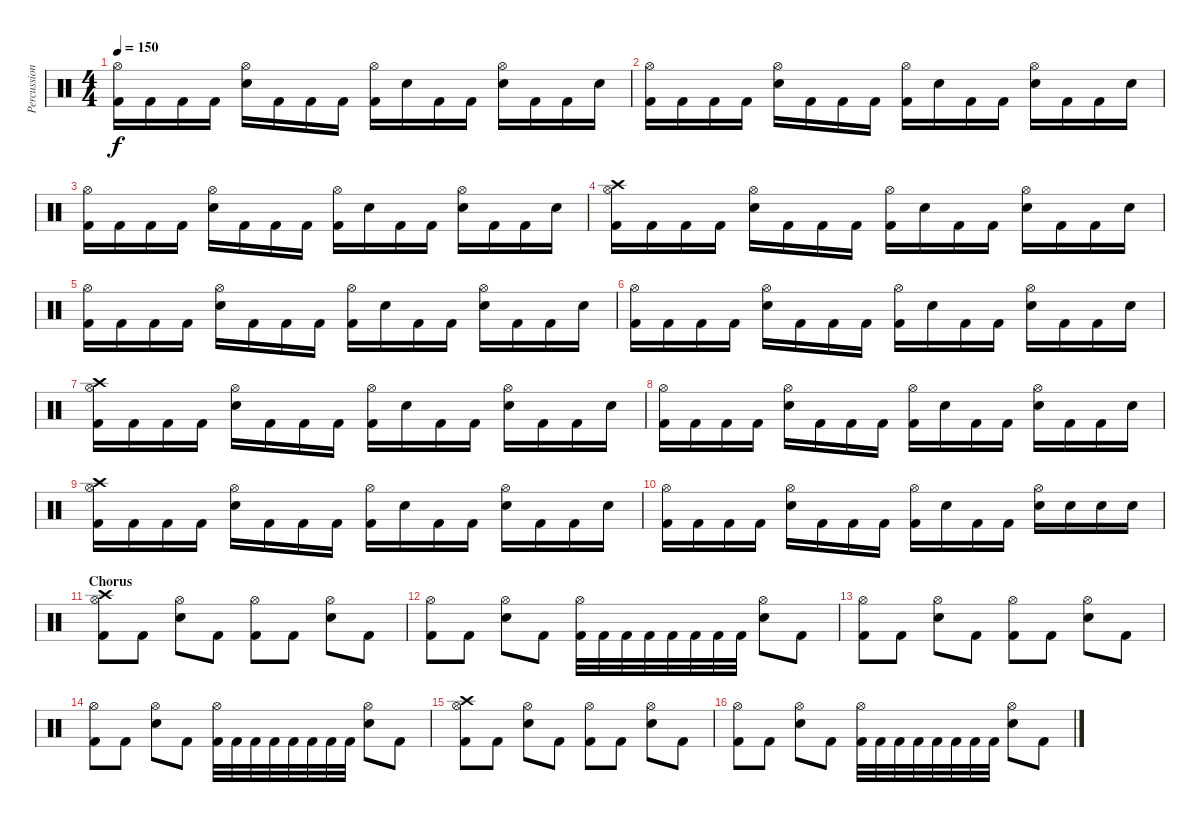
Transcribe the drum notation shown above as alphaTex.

\track ("Percussions" "Percussion") {instrument percussion}
\staff {score}
\articulation defaults
\ts (4 4)
\tempo 150
\clef neutral
\ks c
("Hi-Hat (open)" "Kick (hit) 2").16{dy f} "Kick (hit) 2".16 "Kick (hit) 2".16 "Kick (hit) 2".16 ("Hi-Hat (open)" "Electric Snare (hit)").16 "Kick (hit) 2".16 "Kick (hit) 2".16 "Kick (hit) 2".16 ("Hi-Hat (open)" "Kick (hit) 2").16 "Electric Snare (hit)".16 "Kick (hit) 2".16 "Kick (hit) 2".16 ("Hi-Hat (open)" "Electric Snare (hit)").16 "Kick (hit) 2".16 "Kick (hit) 2".16 "Electric Snare (hit)".16 |
("Hi-Hat (open)" "Kick (hit) 2").16 "Kick (hit) 2".16 "Kick (hit) 2".16 "Kick (hit) 2".16 ("Hi-Hat (open)" "Electric Snare (hit)").16 "Kick (hit) 2".16 "Kick (hit) 2".16 "Kick (hit) 2".16 ("Hi-Hat (open)" "Kick (hit) 2").16 "Electric Snare (hit)".16 "Kick (hit) 2".16 "Kick (hit) 2".16 ("Hi-Hat (open)" "Electric Snare (hit)").16 "Kick (hit) 2".16 "Kick (hit) 2".16 "Electric Snare (hit)".16 |
("Hi-Hat (open)" "Kick (hit) 2").16 "Kick (hit) 2".16 "Kick (hit) 2".16 "Kick (hit) 2".16 ("Hi-Hat (open)" "Electric Snare (hit)").16 "Kick (hit) 2".16 "Kick (hit) 2".16 "Kick (hit) 2".16 ("Hi-Hat (open)" "Kick (hit) 2").16 "Electric Snare (hit)".16 "Kick (hit) 2".16 "Kick (hit) 2".16 ("Hi-Hat (open)" "Electric Snare (hit)").16 "Kick (hit) 2".16 "Kick (hit) 2".16 "Electric Snare (hit)".16 |
("Crash high (hit)" "Hi-Hat (open)" "Kick (hit) 2").16 "Kick (hit) 2".16 "Kick (hit) 2".16 "Kick (hit) 2".16 ("Hi-Hat (open)" "Electric Snare (hit)").16 "Kick (hit) 2".16 "Kick (hit) 2".16 "Kick (hit) 2".16 ("Hi-Hat (open)" "Kick (hit) 2").16 "Electric Snare (hit)".16 "Kick (hit) 2".16 "Kick (hit) 2".16 ("Hi-Hat (open)" "Electric Snare (hit)").16 "Kick (hit) 2".16 "Kick (hit) 2".16 "Electric Snare (hit)".16 |
("Hi-Hat (open)" "Kick (hit) 2").16 "Kick (hit) 2".16 "Kick (hit) 2".16 "Kick (hit) 2".16 ("Hi-Hat (open)" "Electric Snare (hit)").16 "Kick (hit) 2".16 "Kick (hit) 2".16 "Kick (hit) 2".16 ("Hi-Hat (open)" "Kick (hit) 2").16 "Electric Snare (hit)".16 "Kick (hit) 2".16 "Kick (hit) 2".16 ("Hi-Hat (open)" "Electric Snare (hit)").16 "Kick (hit) 2".16 "Kick (hit) 2".16 "Electric Snare (hit)".16 |
("Hi-Hat (open)" "Kick (hit) 2").16 "Kick (hit) 2".16 "Kick (hit) 2".16 "Kick (hit) 2".16 ("Hi-Hat (open)" "Electric Snare (hit)").16 "Kick (hit) 2".16 "Kick (hit) 2".16 "Kick (hit) 2".16 ("Hi-Hat (open)" "Kick (hit) 2").16 "Electric Snare (hit)".16 "Kick (hit) 2".16 "Kick (hit) 2".16 ("Hi-Hat (open)" "Electric Snare (hit)").16 "Kick (hit) 2".16 "Kick (hit) 2".16 "Electric Snare (hit)".16 |
("Crash high (hit)" "Hi-Hat (open)" "Kick (hit) 2").16 "Kick (hit) 2".16 "Kick (hit) 2".16 "Kick (hit) 2".16 ("Hi-Hat (open)" "Electric Snare (hit)").16 "Kick (hit) 2".16 "Kick (hit) 2".16 "Kick (hit) 2".16 ("Hi-Hat (open)" "Kick (hit) 2").16 "Electric Snare (hit)".16 "Kick (hit) 2".16 "Kick (hit) 2".16 ("Hi-Hat (open)" "Electric Snare (hit)").16 "Kick (hit) 2".16 "Kick (hit) 2".16 "Electric Snare (hit)".16 |
("Hi-Hat (open)" "Kick (hit) 2").16 "Kick (hit) 2".16 "Kick (hit) 2".16 "Kick (hit) 2".16 ("Hi-Hat (open)" "Electric Snare (hit)").16 "Kick (hit) 2".16 "Kick (hit) 2".16 "Kick (hit) 2".16 ("Hi-Hat (open)" "Kick (hit) 2").16 "Electric Snare (hit)".16 "Kick (hit) 2".16 "Kick (hit) 2".16 ("Hi-Hat (open)" "Electric Snare (hit)").16 "Kick (hit) 2".16 "Kick (hit) 2".16 "Electric Snare (hit)".16 |
("Crash high (hit)" "Hi-Hat (open)" "Kick (hit) 2").16 "Kick (hit) 2".16 "Kick (hit) 2".16 "Kick (hit) 2".16 ("Hi-Hat (open)" "Electric Snare (hit)").16 "Kick (hit) 2".16 "Kick (hit) 2".16 "Kick (hit) 2".16 ("Hi-Hat (open)" "Kick (hit) 2").16 "Electric Snare (hit)".16 "Kick (hit) 2".16 "Kick (hit) 2".16 ("Hi-Hat (open)" "Electric Snare (hit)").16 "Kick (hit) 2".16 "Kick (hit) 2".16 "Electric Snare (hit)".16 |
("Hi-Hat (open)" "Kick (hit) 2").16 "Kick (hit) 2".16 "Kick (hit) 2".16 "Kick (hit) 2".16 ("Hi-Hat (open)" "Electric Snare (hit)").16 "Kick (hit) 2".16 "Kick (hit) 2".16 "Kick (hit) 2".16 ("Hi-Hat (open)" "Kick (hit) 2").16 "Electric Snare (hit)".16 "Kick (hit) 2".16 "Kick (hit) 2".16 ("Hi-Hat (open)" "Electric Snare (hit)").16 "Electric Snare (hit)".16 "Electric Snare (hit)".16 "Electric Snare (hit)".16 |
\section ("" "Chorus")
("Crash high (hit)" "Hi-Hat (open)" "Kick (hit) 2").8 "Kick (hit) 2".8 ("Hi-Hat (open)" "Electric Snare (hit)").8 "Kick (hit) 2".8 ("Hi-Hat (open)" "Kick (hit) 2").8 "Kick (hit) 2".8 ("Hi-Hat (open)" "Electric Snare (hit)").8 "Kick (hit) 2".8 |
("Hi-Hat (open)" "Kick (hit) 2").8 "Kick (hit) 2".8 ("Hi-Hat (open)" "Electric Snare (hit)").8 "Kick (hit) 2".8 ("Hi-Hat (open)" "Kick (hit) 2").32 "Kick (hit) 2".32 "Kick (hit) 2".32 "Kick (hit) 2".32 "Kick (hit) 2".32 "Kick (hit) 2".32 "Kick (hit) 2".32 "Kick (hit) 2".32 ("Hi-Hat (open)" "Electric Snare (hit)").8 "Kick (hit) 2".8 |
("Hi-Hat (open)" "Kick (hit) 2").8 "Kick (hit) 2".8 ("Hi-Hat (open)" "Electric Snare (hit)").8 "Kick (hit) 2".8 ("Hi-Hat (open)" "Kick (hit) 2").8 "Kick (hit) 2".8 ("Hi-Hat (open)" "Electric Snare (hit)").8 "Kick (hit) 2".8 |
("Hi-Hat (open)" "Kick (hit) 2").8 "Kick (hit) 2".8 ("Hi-Hat (open)" "Electric Snare (hit)").8 "Kick (hit) 2".8 ("Hi-Hat (open)" "Kick (hit) 2").32 "Kick (hit) 2".32 "Kick (hit) 2".32 "Kick (hit) 2".32 "Kick (hit) 2".32 "Kick (hit) 2".32 "Kick (hit) 2".32 "Kick (hit) 2".32 ("Hi-Hat (open)" "Electric Snare (hit)").8 "Kick (hit) 2".8 |
("Crash high (hit)" "Hi-Hat (open)" "Kick (hit) 2").8 "Kick (hit) 2".8 ("Hi-Hat (open)" "Electric Snare (hit)").8 "Kick (hit) 2".8 ("Hi-Hat (open)" "Kick (hit) 2").8 "Kick (hit) 2".8 ("Hi-Hat (open)" "Electric Snare (hit)").8 "Kick (hit) 2".8 |
("Hi-Hat (open)" "Kick (hit) 2").8 "Kick (hit) 2".8 ("Hi-Hat (open)" "Electric Snare (hit)").8 "Kick (hit) 2".8 ("Hi-Hat (open)" "Kick (hit) 2").32 "Kick (hit) 2".32 "Kick (hit) 2".32 "Kick (hit) 2".32 "Kick (hit) 2".32 "Kick (hit) 2".32 "Kick (hit) 2".32 "Kick (hit) 2".32 ("Hi-Hat (open)" "Electric Snare (hit)").8 "Kick (hit) 2".8
